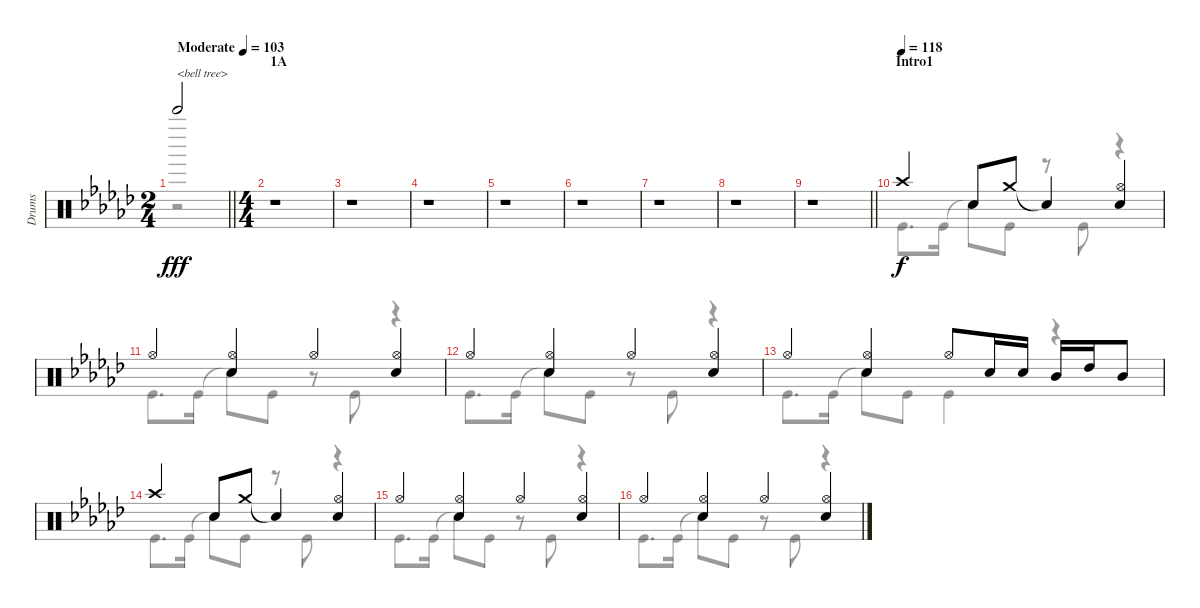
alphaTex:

\track ("Drums" "Drums") {instrument percussion}
\staff {score}
\articulation defaults
\voice
\ts (2 4)
\tempo (103 "Moderate")
\clef neutral
\barLineRight lightlight
\ks gb "Bell Tree (hit)".2{txt "<bell tree>" dy fff}
|
\ts (4 4)
\section ("" "1A")
r.1 |
r.1 |
r.1 |
r.1 |
r.1 |
r.1 |
r.1 |
\barLineRight lightlight
r.1 |
\section ("" "Intro1")
\tempo (118)
"Crash high (hit)".4{dy f} "Snare (hit) 2".8 "Crash medium (hit)".8 "Snare (hit)"{t}.4 ("Hi-Hat (open)" "Snare (hit) 2").4 |
"Hi-Hat (open)".4 ("Hi-Hat (open)" "Snare (hit) 2").4 "Hi-Hat (open)".4 ("Hi-Hat (open)" "Snare (hit) 2").4 |
"Hi-Hat (open)".4 ("Hi-Hat (open)" "Snare (hit) 2").4 "Hi-Hat (open)".4 ("Hi-Hat (open)" "Snare (hit) 2").4 |
"Hi-Hat (open)".4 ("Hi-Hat (open)" "Snare (hit) 2").4 "Hi-Hat (open)".8 "Snare (hit) 2".16 "Snare (hit) 2".16 "Mid Tom (hit)".16 "High Tom (hit)".16 "Mid Tom (hit)".8 |
"Crash high (hit)".4 "Snare (hit) 2".8 "Crash medium (hit)".8 "Snare (hit)"{t}.4 ("Hi-Hat (open)" "Snare (hit) 2").4 |
"Hi-Hat (open)".4 ("Hi-Hat (open)" "Snare (hit) 2").4 "Hi-Hat (open)".4 ("Hi-Hat (open)" "Snare (hit) 2").4 |
"Hi-Hat (open)".4 ("Hi-Hat (open)" "Snare (hit) 2").4 "Hi-Hat (open)".4 ("Hi-Hat (open)" "Snare (hit) 2").4
\voice
\clef neutral
\ottava regular
\simile none
\barLineRight lightlight
\ks gb
r.2{dy f} |
r.1 |
r.1 |
r.1 |
r.1 |
r.1 |
r.1 |
r.1 |
\barLineRight lightlight
r.1 |
"Kick (hit)".8{d} "Kick (hit)".16 "Snare (hit)"{t}.8 "Kick (hit)".8 r.8 "Kick (hit)".8 r.4 |
"Kick (hit)".8{d} "Kick (hit)".16 "Snare (hit)"{t}.8 "Kick (hit)".8 r.8 "Kick (hit)".8 r.4 |
"Kick (hit)".8{d} "Kick (hit)".16 "Snare (hit)"{t}.8 "Kick (hit)".8 r.8 "Kick (hit)".8 r.4 |
"Kick (hit)".8{d} "Kick (hit)".16 "Snare (hit)"{t}.8 "Kick (hit)".8 "Kick (hit)".4 r.4 |
"Kick (hit)".8{d} "Kick (hit)".16 "Snare (hit)"{t}.8 "Kick (hit)".8 r.8 "Kick (hit)".8 r.4 |
"Kick (hit)".8{d} "Kick (hit)".16 "Snare (hit)"{t}.8 "Kick (hit)".8 r.8 "Kick (hit)".8 r.4 |
"Kick (hit)".8{d} "Kick (hit)".16 "Snare (hit)"{t}.8 "Kick (hit)".8 r.8 "Kick (hit)".8 r.4
